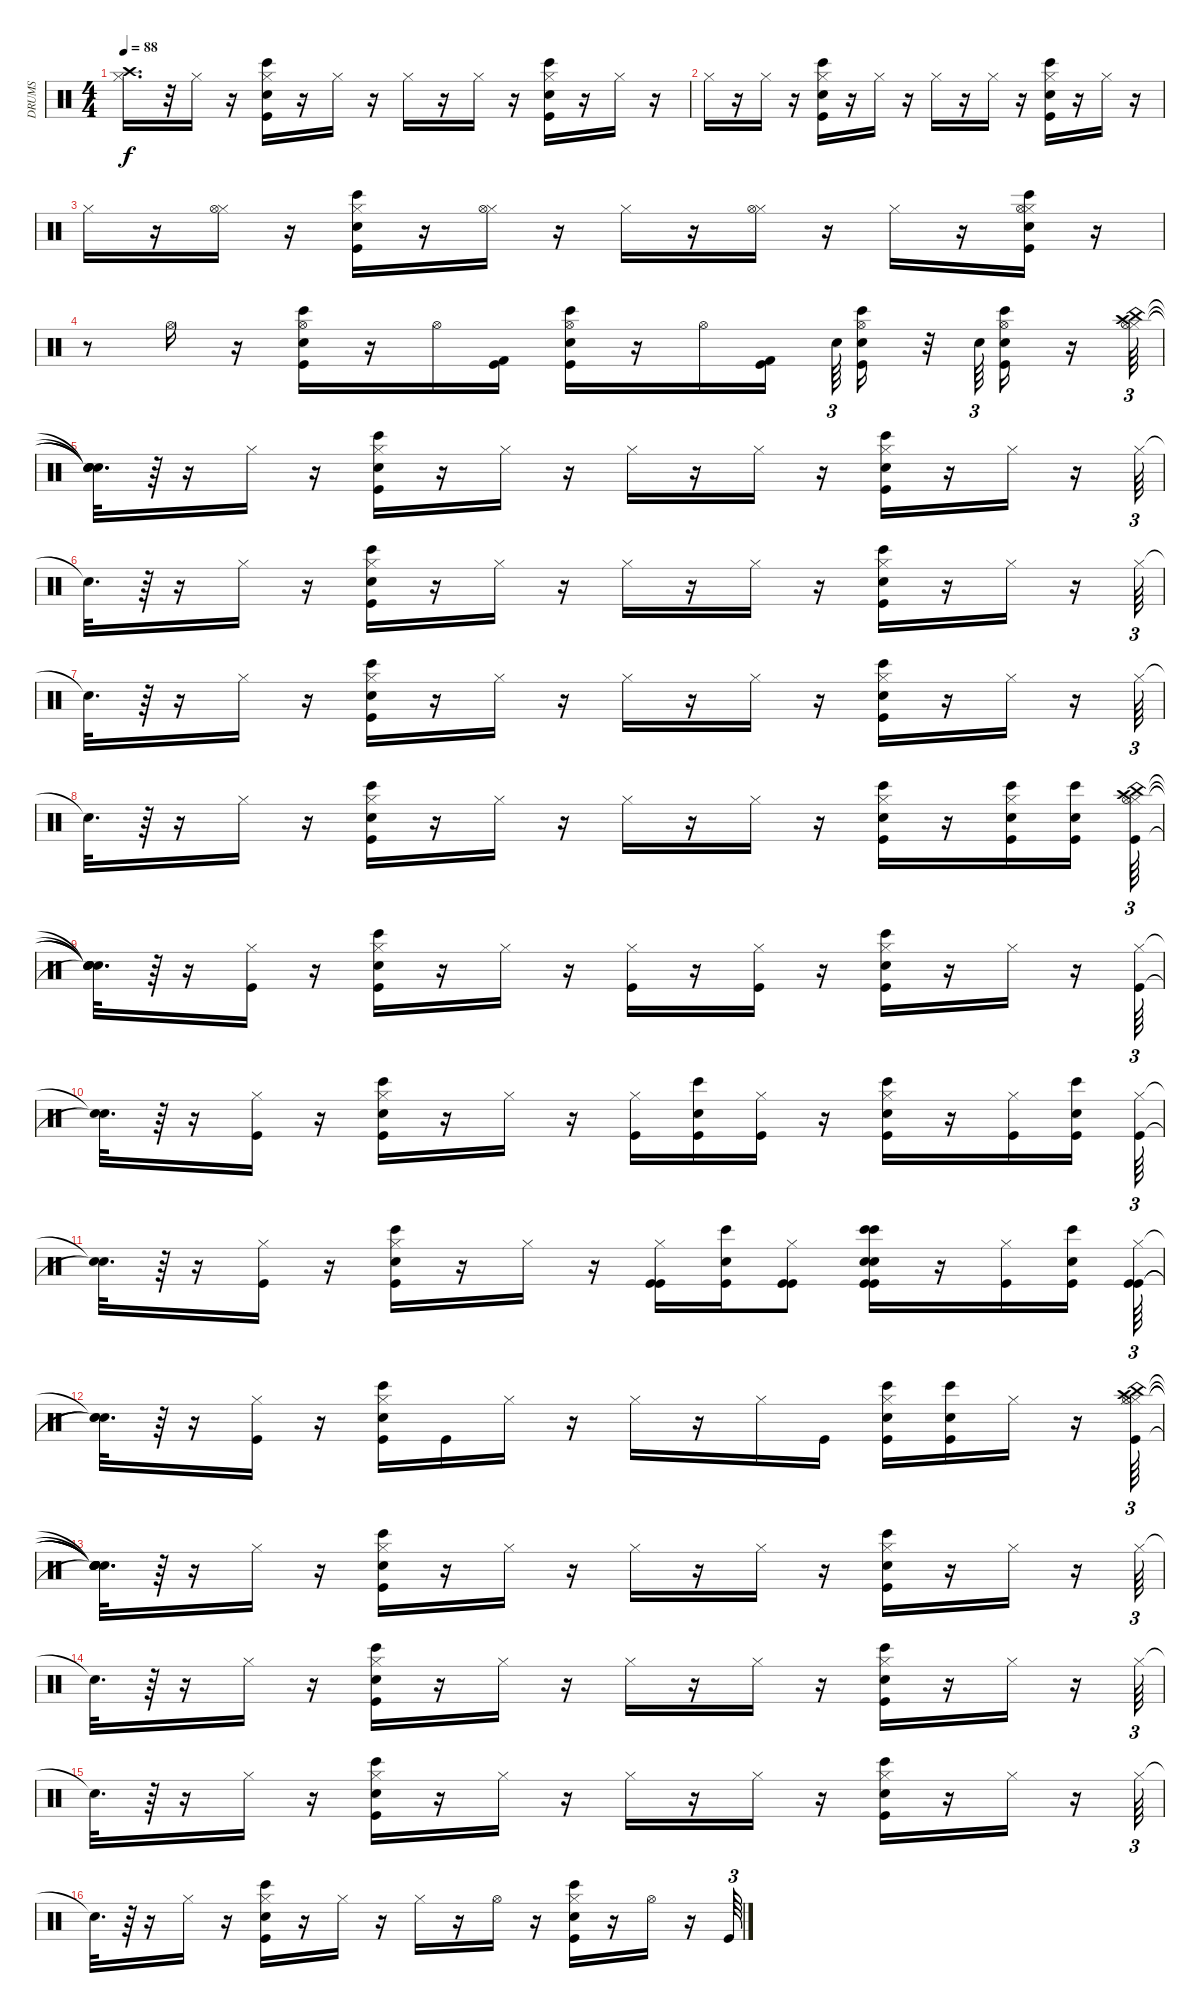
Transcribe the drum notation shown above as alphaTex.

\track ("DRUMS" "DRUMS") {instrument percussion}
\staff {score}
\articulation defaults
\ts (4 4)
\tempo 88
\clef neutral
\ks c
("Crash high (hit)" "Hi-Hat (closed)").16{d dy f} r.32 "Hi-Hat (closed)".16 r.16 ("Bongo High (hit)" "Kick (hit)" "Electric Snare (hit)" "Hi-Hat (closed)").16 r.16 "Hi-Hat (closed)".16 r.16 "Hi-Hat (closed)".16 r.16 "Hi-Hat (closed)".16 r.16 ("Bongo High (hit)" "Kick (hit)" "Electric Snare (hit)" "Hi-Hat (closed)").16 r.16 "Hi-Hat (closed)".16 r.16 |
"Hi-Hat (closed)".16 r.16 "Hi-Hat (closed)".16 r.16 ("Bongo High (hit)" "Kick (hit)" "Electric Snare (hit)" "Hi-Hat (closed)").16 r.16 "Hi-Hat (closed)".16 r.16 "Hi-Hat (closed)".16 r.16 "Hi-Hat (closed)".16 r.16 ("Bongo High (hit)" "Kick (hit)" "Electric Snare (hit)" "Hi-Hat (closed)").16 r.16 "Hi-Hat (closed)".16 r.16 |
"Hi-Hat (closed)".16 r.16 ("Hi-Hat (closed)" "Hi-Hat (open)").16 r.16 ("Bongo High (hit)" "Kick (hit)" "Electric Snare (hit)" "Hi-Hat (closed)").16 r.16 ("Hi-Hat (closed)" "Hi-Hat (open)").16 r.16 "Hi-Hat (closed)".16 r.16 ("Hi-Hat (closed)" "Hi-Hat (open)").16 r.16 "Hi-Hat (closed)".16 r.16 ("Bongo High (hit)" "Kick (hit)" "Electric Snare (hit)" "Hi-Hat (closed)" "Hi-Hat (open)").16 r.16 |
r.8 "Hi-Hat (open)".16 r.16 ("Bongo High (hit)" "Kick (hit)" "Electric Snare (hit)" "Hi-Hat (open)").16 r.16 "Hi-Hat (open)".16 ("Kick (hit) 2" "Kick (hit)").16 ("Bongo High (hit)" "Kick (hit)" "Electric Snare (hit)" "Hi-Hat (open)").16 r.16 "Hi-Hat (open)".16 ("Kick (hit) 2" "Kick (hit)").16 "Electric Snare (hit)".64{tu (3 2)} ("Electric Snare (hit)" "Bongo High (hit)" "Kick (hit)" "Hi-Hat (open)").16 r.32 "Electric Snare (hit)".64{tu (3 2)} ("Bongo High (hit)" "Kick (hit)" "Electric Snare (hit)" "Hi-Hat (open)").16 r.16 ("Hi-Hat (closed)" "China (hit)" "Crash high (hit)" "Hi-Hat (open)").64{tu (3 2)} |
("Snare (hit)"{t} "Snare (hit)"{t} "Snare (hit)"{t} "Snare (hit)"{t}).32{d} r.64 r.16 "Hi-Hat (closed)".16 r.16 ("Bongo High (hit)" "Kick (hit)" "Electric Snare (hit)" "Hi-Hat (closed)").16 r.16 "Hi-Hat (closed)".16 r.16 "Hi-Hat (closed)".16 r.16 "Hi-Hat (closed)".16 r.16 ("Bongo High (hit)" "Kick (hit)" "Electric Snare (hit)" "Hi-Hat (closed)").16 r.16 "Hi-Hat (closed)".16 r.16 "Hi-Hat (closed)".64{tu (3 2)} |
"Snare (hit)"{t}.32{d} r.64 r.16 "Hi-Hat (closed)".16 r.16 ("Bongo High (hit)" "Kick (hit)" "Electric Snare (hit)" "Hi-Hat (closed)").16 r.16 "Hi-Hat (closed)".16 r.16 "Hi-Hat (closed)".16 r.16 "Hi-Hat (closed)".16 r.16 ("Bongo High (hit)" "Kick (hit)" "Electric Snare (hit)" "Hi-Hat (closed)").16 r.16 "Hi-Hat (closed)".16 r.16 "Hi-Hat (closed)".64{tu (3 2)} |
"Snare (hit)"{t}.32{d} r.64 r.16 "Hi-Hat (closed)".16 r.16 ("Bongo High (hit)" "Kick (hit)" "Electric Snare (hit)" "Hi-Hat (closed)").16 r.16 "Hi-Hat (closed)".16 r.16 "Hi-Hat (closed)".16 r.16 "Hi-Hat (closed)".16 r.16 ("Bongo High (hit)" "Kick (hit)" "Electric Snare (hit)" "Hi-Hat (closed)").16 r.16 "Hi-Hat (closed)".16 r.16 "Hi-Hat (closed)".64{tu (3 2)} |
"Snare (hit)"{t}.32{d} r.64 r.16 "Hi-Hat (closed)".16 r.16 ("Bongo High (hit)" "Kick (hit)" "Electric Snare (hit)" "Hi-Hat (closed)").16 r.16 "Hi-Hat (closed)".16 r.16 "Hi-Hat (closed)".16 r.16 "Hi-Hat (closed)".16 r.16 ("Bongo High (hit)" "Kick (hit)" "Electric Snare (hit)" "Hi-Hat (closed)").16 r.16 ("Bongo High (hit)" "Kick (hit)" "Electric Snare (hit)" "Hi-Hat (closed)").16 ("Bongo High (hit)" "Kick (hit)" "Electric Snare (hit)").16 ("Kick (hit)" "Hi-Hat (closed)" "Hi-Hat (open)" "China (hit)" "Crash high (hit)").64{tu (3 2)} |
("Snare (hit)"{t} "Snare (hit)"{t} "Snare (hit)"{t} "Snare (hit)"{t} "Snare (hit)"{t}).32{d} r.64 r.16 ("Kick (hit)" "Hi-Hat (closed)").16 r.16 ("Bongo High (hit)" "Kick (hit)" "Electric Snare (hit)" "Hi-Hat (closed)").16 r.16 "Hi-Hat (closed)".16 r.16 ("Kick (hit)" "Hi-Hat (closed)").16 r.16 ("Kick (hit)" "Hi-Hat (closed)").16 r.16 ("Bongo High (hit)" "Kick (hit)" "Electric Snare (hit)" "Hi-Hat (closed)").16 r.16 "Hi-Hat (closed)".16 r.16 ("Kick (hit)" "Hi-Hat (closed)").64{tu (3 2)} |
("Snare (hit)"{t} "Snare (hit)"{t}).32{d} r.64 r.16 ("Kick (hit)" "Hi-Hat (closed)").16 r.16 ("Bongo High (hit)" "Kick (hit)" "Electric Snare (hit)" "Hi-Hat (closed)").16 r.16 "Hi-Hat (closed)".16 r.16 ("Kick (hit)" "Hi-Hat (closed)").16 ("Bongo High (hit)" "Kick (hit)" "Electric Snare (hit)").16 ("Kick (hit)" "Hi-Hat (closed)").16 r.16 ("Bongo High (hit)" "Kick (hit)" "Electric Snare (hit)" "Hi-Hat (closed)").16 r.16 ("Kick (hit)" "Hi-Hat (closed)").16 ("Bongo High (hit)" "Kick (hit)" "Electric Snare (hit)").16 ("Kick (hit)" "Hi-Hat (closed)").64{tu (3 2)} |
("Snare (hit)"{t} "Snare (hit)"{t}).32{d} r.64 r.16 ("Kick (hit)" "Hi-Hat (closed)").16 r.16 ("Bongo High (hit)" "Kick (hit)" "Electric Snare (hit)" "Hi-Hat (closed)").16 r.16 "Hi-Hat (closed)".16 r.16 ("Kick (hit)" "Kick (hit)" "Hi-Hat (closed)").16 ("Bongo High (hit)" "Kick (hit)" "Electric Snare (hit)").16 ("Kick (hit)" "Kick (hit)" "Hi-Hat (closed)").8 ("Bongo High (hit)" "Kick (hit)" "Electric Snare (hit)" "Bongo High (hit)" "Kick (hit)" "Electric Snare (hit)").16 r.16 ("Kick (hit)" "Hi-Hat (closed)").16 ("Bongo High (hit)" "Kick (hit)" "Electric Snare (hit)").16 ("Kick (hit)" "Kick (hit)" "Hi-Hat (closed)").64{tu (3 2)} |
("Snare (hit)"{t} "Snare (hit)"{t} "Snare (hit)"{t}).32{d} r.64 r.16 ("Kick (hit)" "Hi-Hat (closed)").16 r.16 ("Bongo High (hit)" "Kick (hit)" "Electric Snare (hit)" "Hi-Hat (closed)").16 "Kick (hit)".16 "Hi-Hat (closed)".16 r.16 "Hi-Hat (closed)".16 r.16 "Hi-Hat (closed)".16 "Kick (hit)".16 ("Bongo High (hit)" "Kick (hit)" "Electric Snare (hit)" "Hi-Hat (closed)").16 ("Bongo High (hit)" "Kick (hit)" "Electric Snare (hit)").16 "Hi-Hat (closed)".16 r.16 ("Hi-Hat (closed)" "Kick (hit)" "Hi-Hat (closed)" "Hi-Hat (open)" "China (hit)" "Crash high (hit)").64{tu (3 2)} |
("Snare (hit)"{t} "Snare (hit)"{t} "Snare (hit)"{t} "Snare (hit)"{t} "Snare (hit)"{t} "Snare (hit)"{t}).32{d} r.64 r.16 "Hi-Hat (closed)".16 r.16 ("Bongo High (hit)" "Kick (hit)" "Electric Snare (hit)" "Hi-Hat (closed)").16 r.16 "Hi-Hat (closed)".16 r.16 "Hi-Hat (closed)".16 r.16 "Hi-Hat (closed)".16 r.16 ("Bongo High (hit)" "Kick (hit)" "Electric Snare (hit)" "Hi-Hat (closed)").16 r.16 "Hi-Hat (closed)".16 r.16 "Hi-Hat (closed)".64{tu (3 2)} |
"Snare (hit)"{t}.32{d} r.64 r.16 "Hi-Hat (closed)".16 r.16 ("Bongo High (hit)" "Kick (hit)" "Electric Snare (hit)" "Hi-Hat (closed)").16 r.16 "Hi-Hat (closed)".16 r.16 "Hi-Hat (closed)".16 r.16 "Hi-Hat (closed)".16 r.16 ("Bongo High (hit)" "Kick (hit)" "Electric Snare (hit)" "Hi-Hat (closed)").16 r.16 "Hi-Hat (closed)".16 r.16 "Hi-Hat (closed)".64{tu (3 2)} |
"Snare (hit)"{t}.32{d} r.64 r.16 "Hi-Hat (closed)".16 r.16 ("Bongo High (hit)" "Kick (hit)" "Electric Snare (hit)" "Hi-Hat (closed)").16 r.16 "Hi-Hat (closed)".16 r.16 "Hi-Hat (closed)".16 r.16 "Hi-Hat (closed)".16 r.16 ("Bongo High (hit)" "Kick (hit)" "Electric Snare (hit)" "Hi-Hat (closed)").16 r.16 "Hi-Hat (closed)".16 r.16 "Hi-Hat (closed)".64{tu (3 2)} |
"Snare (hit)"{t}.32{d} r.64 r.16 "Hi-Hat (closed)".16 r.16 ("Bongo High (hit)" "Kick (hit)" "Electric Snare (hit)" "Hi-Hat (closed)").16 r.16 "Hi-Hat (closed)".16 r.16 "Hi-Hat (closed)".16 r.16 "Hi-Hat (open)".16 r.16 ("Bongo High (hit)" "Kick (hit)" "Electric Snare (hit)" "Hi-Hat (closed)").16 r.16 "Hi-Hat (open)".16 r.16 "Kick (hit)".64{tu (3 2)}
